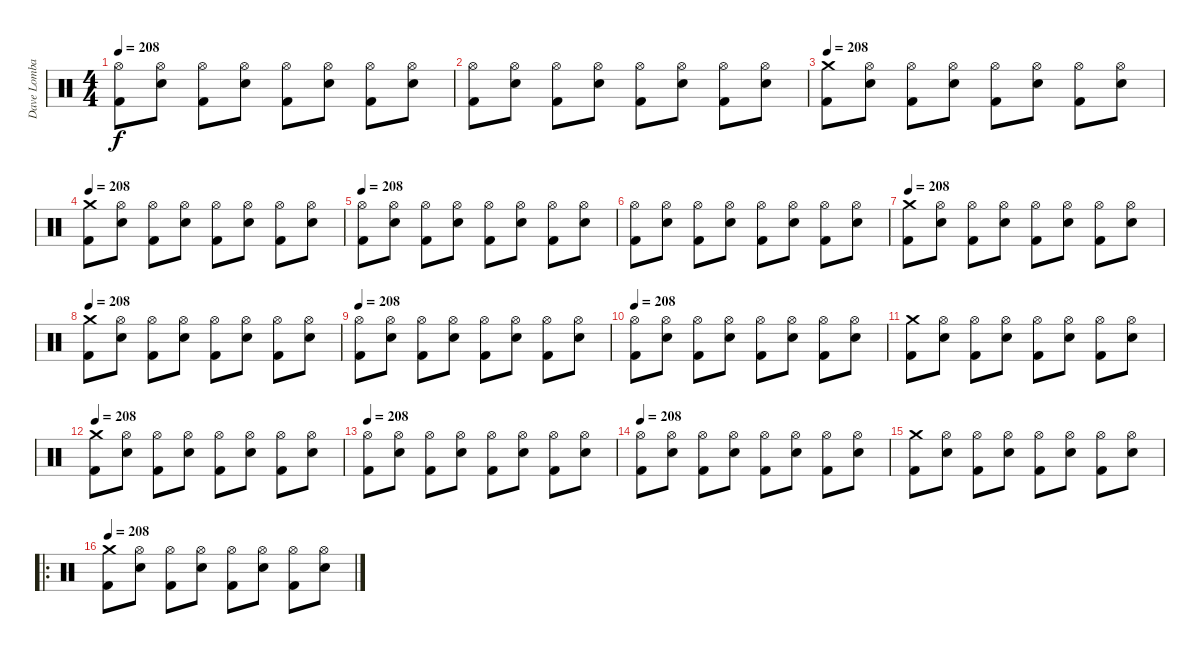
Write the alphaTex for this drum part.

\track ("Dave Lombardo" "Dave Lomba") {instrument percussion}
\staff {score}
\articulation defaults
\ts (4 4)
\tempo 208
\clef neutral
\ks c
("Hi-Hat (open)" "Kick (hit) 2").8{dy f} ("Electric Snare (hit)" "Hi-Hat (open)").8 ("Kick (hit) 2" "Hi-Hat (open)").8 ("Electric Snare (hit)" "Hi-Hat (open)").8 ("Kick (hit) 2" "Hi-Hat (open)").8 ("Electric Snare (hit)" "Hi-Hat (open)").8 ("Kick (hit) 2" "Hi-Hat (open)").8 ("Electric Snare (hit)" "Hi-Hat (open)").8 |
("Hi-Hat (open)" "Kick (hit) 2").8 ("Electric Snare (hit)" "Hi-Hat (open)").8 ("Kick (hit) 2" "Hi-Hat (open)").8 ("Electric Snare (hit)" "Hi-Hat (open)").8 ("Kick (hit) 2" "Hi-Hat (open)").8 ("Electric Snare (hit)" "Hi-Hat (open)").8 ("Kick (hit) 2" "Hi-Hat (open)").8 ("Electric Snare (hit)" "Hi-Hat (open)").8 |
\tempo 208
("Crash medium (hit)" "Kick (hit) 2").8 ("Electric Snare (hit)" "Hi-Hat (open)").8 ("Kick (hit) 2" "Hi-Hat (open)").8 ("Electric Snare (hit)" "Hi-Hat (open)").8 ("Kick (hit) 2" "Hi-Hat (open)").8 ("Electric Snare (hit)" "Hi-Hat (open)").8 ("Kick (hit) 2" "Hi-Hat (open)").8 ("Electric Snare (hit)" "Hi-Hat (open)").8 |
\tempo 208
("Crash medium (hit)" "Kick (hit) 2").8 ("Electric Snare (hit)" "Hi-Hat (open)").8 ("Kick (hit) 2" "Hi-Hat (open)").8 ("Electric Snare (hit)" "Hi-Hat (open)").8 ("Kick (hit) 2" "Hi-Hat (open)").8 ("Electric Snare (hit)" "Hi-Hat (open)").8 ("Kick (hit) 2" "Hi-Hat (open)").8 ("Electric Snare (hit)" "Hi-Hat (open)").8 |
\tempo 208
("Hi-Hat (open)" "Kick (hit) 2").8 ("Electric Snare (hit)" "Hi-Hat (open)").8 ("Kick (hit) 2" "Hi-Hat (open)").8 ("Electric Snare (hit)" "Hi-Hat (open)").8 ("Kick (hit) 2" "Hi-Hat (open)").8 ("Electric Snare (hit)" "Hi-Hat (open)").8 ("Kick (hit) 2" "Hi-Hat (open)").8 ("Electric Snare (hit)" "Hi-Hat (open)").8 |
("Hi-Hat (open)" "Kick (hit) 2").8 ("Electric Snare (hit)" "Hi-Hat (open)").8 ("Kick (hit) 2" "Hi-Hat (open)").8 ("Electric Snare (hit)" "Hi-Hat (open)").8 ("Kick (hit) 2" "Hi-Hat (open)").8 ("Electric Snare (hit)" "Hi-Hat (open)").8 ("Kick (hit) 2" "Hi-Hat (open)").8 ("Electric Snare (hit)" "Hi-Hat (open)").8 |
\tempo 208
("Crash medium (hit)" "Kick (hit) 2").8 ("Electric Snare (hit)" "Hi-Hat (open)").8 ("Kick (hit) 2" "Hi-Hat (open)").8 ("Electric Snare (hit)" "Hi-Hat (open)").8 ("Kick (hit) 2" "Hi-Hat (open)").8 ("Electric Snare (hit)" "Hi-Hat (open)").8 ("Kick (hit) 2" "Hi-Hat (open)").8 ("Electric Snare (hit)" "Hi-Hat (open)").8 |
\tempo 208
("Crash medium (hit)" "Kick (hit) 2").8 ("Electric Snare (hit)" "Hi-Hat (open)").8 ("Kick (hit) 2" "Hi-Hat (open)").8 ("Electric Snare (hit)" "Hi-Hat (open)").8 ("Kick (hit) 2" "Hi-Hat (open)").8 ("Electric Snare (hit)" "Hi-Hat (open)").8 ("Kick (hit) 2" "Hi-Hat (open)").8 ("Electric Snare (hit)" "Hi-Hat (open)").8 |
\tempo 208
("Hi-Hat (open)" "Kick (hit) 2").8 ("Electric Snare (hit)" "Hi-Hat (open)").8 ("Kick (hit) 2" "Hi-Hat (open)").8 ("Electric Snare (hit)" "Hi-Hat (open)").8 ("Kick (hit) 2" "Hi-Hat (open)").8 ("Electric Snare (hit)" "Hi-Hat (open)").8 ("Kick (hit) 2" "Hi-Hat (open)").8 ("Electric Snare (hit)" "Hi-Hat (open)").8 |
\tempo 208
("Hi-Hat (open)" "Kick (hit) 2").8 ("Electric Snare (hit)" "Hi-Hat (open)").8 ("Kick (hit) 2" "Hi-Hat (open)").8 ("Electric Snare (hit)" "Hi-Hat (open)").8 ("Kick (hit) 2" "Hi-Hat (open)").8 ("Electric Snare (hit)" "Hi-Hat (open)").8 ("Kick (hit) 2" "Hi-Hat (open)").8 ("Electric Snare (hit)" "Hi-Hat (open)").8 |
("Crash medium (hit)" "Kick (hit) 2").8 ("Electric Snare (hit)" "Hi-Hat (open)").8 ("Kick (hit) 2" "Hi-Hat (open)").8 ("Electric Snare (hit)" "Hi-Hat (open)").8 ("Kick (hit) 2" "Hi-Hat (open)").8 ("Electric Snare (hit)" "Hi-Hat (open)").8 ("Kick (hit) 2" "Hi-Hat (open)").8 ("Electric Snare (hit)" "Hi-Hat (open)").8 |
\tempo 208
("Crash medium (hit)" "Kick (hit) 2").8 ("Electric Snare (hit)" "Hi-Hat (open)").8 ("Kick (hit) 2" "Hi-Hat (open)").8 ("Electric Snare (hit)" "Hi-Hat (open)").8 ("Kick (hit) 2" "Hi-Hat (open)").8 ("Electric Snare (hit)" "Hi-Hat (open)").8 ("Kick (hit) 2" "Hi-Hat (open)").8 ("Electric Snare (hit)" "Hi-Hat (open)").8 |
\tempo 208
("Hi-Hat (open)" "Kick (hit) 2").8 ("Electric Snare (hit)" "Hi-Hat (open)").8 ("Kick (hit) 2" "Hi-Hat (open)").8 ("Electric Snare (hit)" "Hi-Hat (open)").8 ("Kick (hit) 2" "Hi-Hat (open)").8 ("Electric Snare (hit)" "Hi-Hat (open)").8 ("Kick (hit) 2" "Hi-Hat (open)").8 ("Electric Snare (hit)" "Hi-Hat (open)").8 |
\tempo 208
("Hi-Hat (open)" "Kick (hit) 2").8 ("Electric Snare (hit)" "Hi-Hat (open)").8 ("Kick (hit) 2" "Hi-Hat (open)").8 ("Electric Snare (hit)" "Hi-Hat (open)").8 ("Kick (hit) 2" "Hi-Hat (open)").8 ("Electric Snare (hit)" "Hi-Hat (open)").8 ("Kick (hit) 2" "Hi-Hat (open)").8 ("Electric Snare (hit)" "Hi-Hat (open)").8 |
("Crash medium (hit)" "Kick (hit) 2").8 ("Electric Snare (hit)" "Hi-Hat (open)").8 ("Kick (hit) 2" "Hi-Hat (open)").8 ("Electric Snare (hit)" "Hi-Hat (open)").8 ("Kick (hit) 2" "Hi-Hat (open)").8 ("Electric Snare (hit)" "Hi-Hat (open)").8 ("Kick (hit) 2" "Hi-Hat (open)").8 ("Electric Snare (hit)" "Hi-Hat (open)").8 |
\ro
\tempo 208
("Crash medium (hit)" "Kick (hit) 2").8 ("Electric Snare (hit)" "Hi-Hat (open)").8 ("Kick (hit) 2" "Hi-Hat (open)").8 ("Electric Snare (hit)" "Hi-Hat (open)").8 ("Kick (hit) 2" "Hi-Hat (open)").8 ("Electric Snare (hit)" "Hi-Hat (open)").8 ("Kick (hit) 2" "Hi-Hat (open)").8 ("Electric Snare (hit)" "Hi-Hat (open)").8
